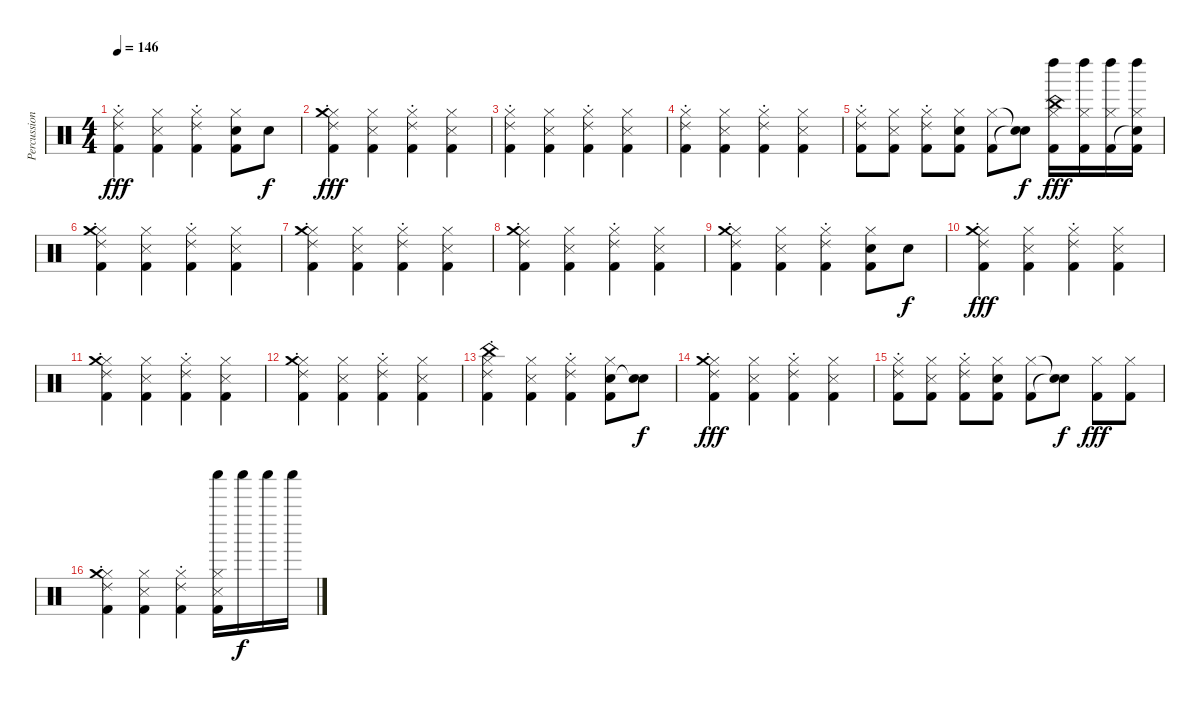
\track ("Percussion" "Percussion") {instrument percussion}
\staff {score}
\articulation defaults
\ts (4 4)
\tempo 146
\clef neutral
\ks c
("Hi-Hat (closed)" "Ride (choke) 2" "Kick (hit) 2").4{dy fff} ("Hi-Hat (closed)" "Metronome (hit)" "Kick (hit) 2").4 ("Hi-Hat (closed)" "Ride (choke) 2" "Kick (hit) 2").4 ("Hi-Hat (closed)" "Hand Clap (hit)" "Kick (hit) 2").8 "Hand Clap (hit)".8{dy f} |
("Hi-Hat (closed)" "Ride (choke) 2" "Crash medium (hit)" "Kick (hit) 2").4{dy fff} ("Hi-Hat (closed)" "Metronome (hit)" "Kick (hit) 2").4 ("Hi-Hat (closed)" "Ride (choke) 2" "Kick (hit) 2").4 ("Hi-Hat (closed)" "Metronome (hit)" "Kick (hit) 2").4 |
("Hi-Hat (closed)" "Ride (choke) 2" "Kick (hit) 2").4 ("Hi-Hat (closed)" "Metronome (hit)" "Kick (hit) 2").4 ("Hi-Hat (closed)" "Ride (choke) 2" "Kick (hit) 2").4 ("Hi-Hat (closed)" "Metronome (hit)" "Kick (hit) 2").4 |
("Hi-Hat (closed)" "Ride (choke) 2" "Kick (hit) 2").4 ("Hi-Hat (closed)" "Metronome (hit)" "Kick (hit) 2").4 ("Hi-Hat (closed)" "Ride (choke) 2" "Kick (hit) 2").4 ("Hi-Hat (closed)" "Metronome (hit)" "Kick (hit) 2").4 |
("Hi-Hat (closed)" "Ride (choke) 2" "Kick (hit) 2").8 ("Hi-Hat (closed)" "Metronome (hit)" "Kick (hit) 2").8 ("Hi-Hat (closed)" "Ride (choke) 2" "Kick (hit) 2").8 ("Hi-Hat (closed)" "Hand Clap (hit)" "Kick (hit) 2").8 ("Hi-Hat (closed)" "Kick (hit) 2").8 ("Snare (hit)"{t} "Snare (hit)"{t}).8{dy f} ("Hi-Hat (closed)" "Left Maraca (hit)" "China (hit)" "Kick (hit) 2").16{dy fff} ("Hi-Hat (closed)" "Left Maraca (hit)" "Kick (hit) 2").16 ("Hi-Hat (closed)" "Left Maraca (hit)" "Kick (hit) 2").16 ("Hi-Hat (closed)" "Left Maraca (hit)" "Snare (hit)"{t} "Kick (hit) 2").16 |
("Hi-Hat (closed)" "Ride (choke) 2" "Crash medium (hit)" "Kick (hit) 2").4 ("Hi-Hat (closed)" "Metronome (hit)" "Kick (hit) 2").4 ("Hi-Hat (closed)" "Ride (choke) 2" "Kick (hit) 2").4 ("Hi-Hat (closed)" "Metronome (hit)" "Kick (hit) 2").4 |
("Hi-Hat (closed)" "Ride (choke) 2" "Crash medium (hit)" "Kick (hit) 2").4 ("Hi-Hat (closed)" "Metronome (hit)" "Kick (hit) 2").4 ("Hi-Hat (closed)" "Ride (choke) 2" "Kick (hit) 2").4 ("Hi-Hat (closed)" "Metronome (hit)" "Kick (hit) 2").4 |
("Hi-Hat (closed)" "Ride (choke) 2" "Crash medium (hit)" "Kick (hit) 2").4 ("Hi-Hat (closed)" "Metronome (hit)" "Kick (hit) 2").4 ("Hi-Hat (closed)" "Ride (choke) 2" "Kick (hit) 2").4 ("Hi-Hat (closed)" "Metronome (hit)" "Kick (hit) 2").4 |
("Hi-Hat (closed)" "Ride (choke) 2" "Crash medium (hit)" "Kick (hit) 2").4 ("Hi-Hat (closed)" "Metronome (hit)" "Kick (hit) 2").4 ("Hi-Hat (closed)" "Ride (choke) 2" "Kick (hit) 2").4 ("Hi-Hat (closed)" "Hand Clap (hit)" "Kick (hit) 2").8 "Hand Clap (hit)".8{dy f} |
("Hi-Hat (closed)" "Ride (choke) 2" "Crash medium (hit)" "Kick (hit) 2").4{dy fff} ("Hi-Hat (closed)" "Metronome (hit)" "Kick (hit) 2").4 ("Hi-Hat (closed)" "Ride (choke) 2" "Kick (hit) 2").4 ("Hi-Hat (closed)" "Metronome (hit)" "Kick (hit) 2").4 |
("Hi-Hat (closed)" "Ride (choke) 2" "Crash medium (hit)" "Kick (hit) 2").4 ("Hi-Hat (closed)" "Metronome (hit)" "Kick (hit) 2").4 ("Hi-Hat (closed)" "Ride (choke) 2" "Kick (hit) 2").4 ("Hi-Hat (closed)" "Metronome (hit)" "Kick (hit) 2").4 |
("Hi-Hat (closed)" "Ride (choke) 2" "Crash medium (hit)" "Kick (hit) 2").4 ("Hi-Hat (closed)" "Metronome (hit)" "Kick (hit) 2").4 ("Hi-Hat (closed)" "Ride (choke) 2" "Kick (hit) 2").4 ("Hi-Hat (closed)" "Metronome (hit)" "Kick (hit) 2").4 |
("Hi-Hat (closed)" "Ride (choke) 2" "China (hit)" "Kick (hit) 2").4 ("Hi-Hat (closed)" "Metronome (hit)" "Kick (hit) 2").4 ("Hi-Hat (closed)" "Ride (choke) 2" "Kick (hit) 2").4 ("Hi-Hat (closed)" "Hand Clap (hit)" "Kick (hit) 2").8 ("Hand Clap (hit)" "Snare (hit)"{t}).8{dy f} |
("Hi-Hat (closed)" "Ride (choke) 2" "Crash medium (hit)" "Kick (hit) 2").4{dy fff} ("Hi-Hat (closed)" "Metronome (hit)" "Kick (hit) 2").4 ("Hi-Hat (closed)" "Ride (choke) 2" "Kick (hit) 2").4 ("Hi-Hat (closed)" "Metronome (hit)" "Kick (hit) 2").4 |
("Hi-Hat (closed)" "Ride (choke) 2" "Kick (hit) 2").8 ("Hi-Hat (closed)" "Metronome (hit)" "Kick (hit) 2").8 ("Hi-Hat (closed)" "Ride (choke) 2" "Kick (hit) 2").8 ("Hi-Hat (closed)" "Hand Clap (hit)" "Kick (hit) 2").8 ("Hi-Hat (closed)" "Kick (hit) 2").8 ("Snare (hit)"{t} "Snare (hit)"{t}).8{dy f} ("Hi-Hat (closed)" "Kick (hit) 2").8{dy fff} ("Hi-Hat (closed)" "Kick (hit) 2").8 |
("Hi-Hat (closed)" "Ride (choke) 2" "Crash medium (hit)" "Kick (hit) 2").4 ("Hi-Hat (closed)" "Metronome (hit)" "Kick (hit) 2").4 ("Hi-Hat (closed)" "Ride (choke) 2" "Kick (hit) 2").4 ("Hi-Hat (closed)" "Metronome (hit)" "Shaker (hit)" "Kick (hit) 2").16 "Shaker (hit)".16{dy f} "Shaker (hit)".16 "Shaker (hit)".16
